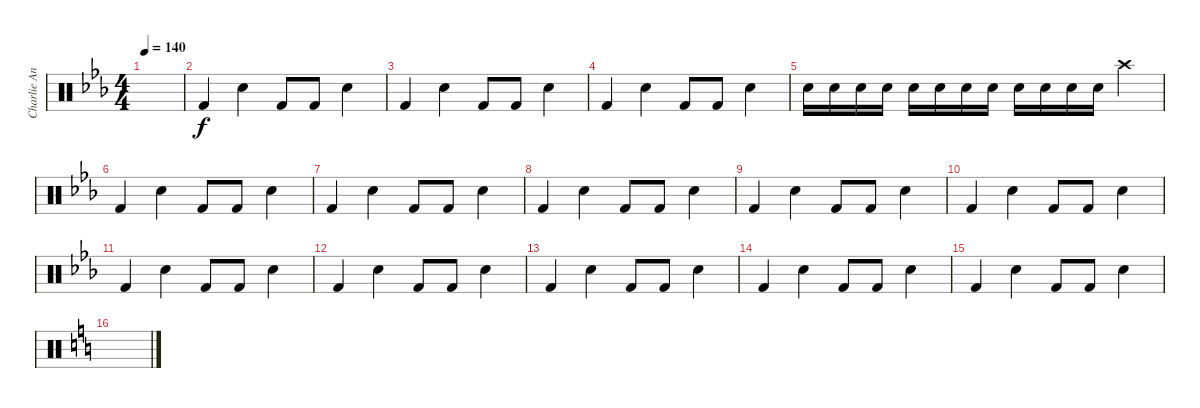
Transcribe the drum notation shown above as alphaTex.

\track ("Charlie Angel" "Charlie An") {instrument percussion}
\staff {score}
\articulation defaults
\ts (4 4)
\tempo 140
\clef neutral
\ks eb
|
"Kick (hit) 2".4 "Electric Snare (hit)".4 "Kick (hit) 2".8 "Kick (hit) 2".8 "Electric Snare (hit)".4 |
"Kick (hit) 2".4 "Electric Snare (hit)".4 "Kick (hit) 2".8 "Kick (hit) 2".8 "Electric Snare (hit)".4 |
"Kick (hit) 2".4 "Electric Snare (hit)".4 "Kick (hit) 2".8 "Kick (hit) 2".8 "Electric Snare (hit)".4 |
"Electric Snare (hit)".16 "Electric Snare (hit)".16 "Electric Snare (hit)".16 "Electric Snare (hit)".16 "Electric Snare (hit)".16 "Electric Snare (hit)".16 "Electric Snare (hit)".16 "Electric Snare (hit)".16 "Electric Snare (hit)".16 "Electric Snare (hit)".16 "Electric Snare (hit)".16 "Electric Snare (hit)".16 "Crash high (hit)".4 |
"Kick (hit) 2".4 "Electric Snare (hit)".4 "Kick (hit) 2".8 "Kick (hit) 2".8 "Electric Snare (hit)".4 |
"Kick (hit) 2".4 "Electric Snare (hit)".4 "Kick (hit) 2".8 "Kick (hit) 2".8 "Electric Snare (hit)".4 |
"Kick (hit) 2".4 "Electric Snare (hit)".4 "Kick (hit) 2".8 "Kick (hit) 2".8 "Electric Snare (hit)".4 |
"Kick (hit) 2".4 "Electric Snare (hit)".4 "Kick (hit) 2".8 "Kick (hit) 2".8 "Electric Snare (hit)".4 |
"Kick (hit) 2".4 "Electric Snare (hit)".4 "Kick (hit) 2".8 "Kick (hit) 2".8 "Electric Snare (hit)".4 |
"Kick (hit) 2".4 "Electric Snare (hit)".4 "Kick (hit) 2".8 "Kick (hit) 2".8 "Electric Snare (hit)".4 |
"Kick (hit) 2".4 "Electric Snare (hit)".4 "Kick (hit) 2".8 "Kick (hit) 2".8 "Electric Snare (hit)".4 |
"Kick (hit) 2".4 "Electric Snare (hit)".4 "Kick (hit) 2".8 "Kick (hit) 2".8 "Electric Snare (hit)".4 |
"Kick (hit) 2".4 "Electric Snare (hit)".4 "Kick (hit) 2".8 "Kick (hit) 2".8 "Electric Snare (hit)".4 |
"Kick (hit) 2".4 "Electric Snare (hit)".4 "Kick (hit) 2".8 "Kick (hit) 2".8 "Electric Snare (hit)".4 |
\ks c
